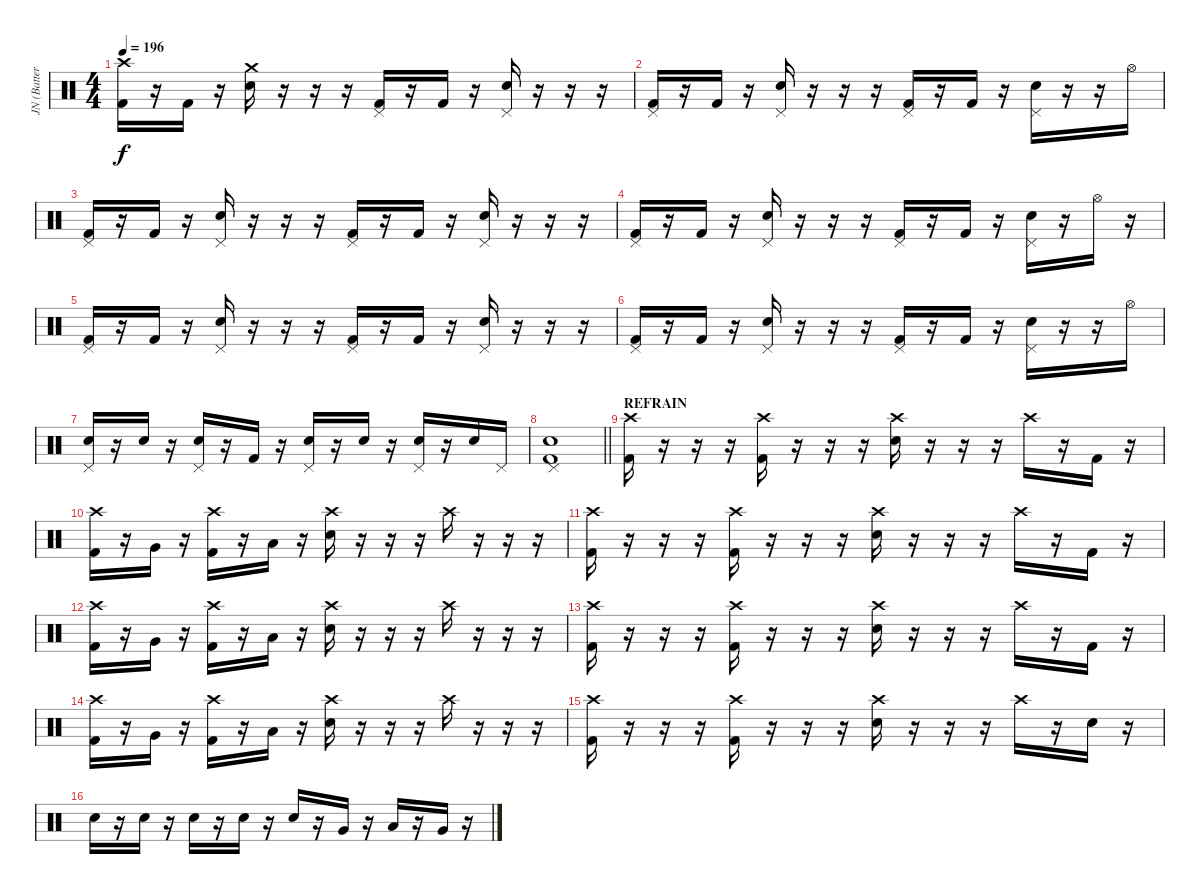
\track ("JN (Batterie)" "JN (Batter") {instrument percussion}
\staff {score}
\articulation defaults
\ts (4 4)
\tempo 196
\clef neutral
\ks c
("Crash high (hit)" "Kick (hit) 2").16{dy f} r.16 "Kick (hit) 2".16 r.16 ("Crash medium (hit)" "Electric Snare (hit)").16 r.16 r.16 r.16 ("Pedal Hi-Hat (hit)" "Kick (hit) 2").16 r.16 "Kick (hit) 2".16 r.16 ("Pedal Hi-Hat (hit)" "Electric Snare (hit)").16 r.16 r.16 r.16 |
("Pedal Hi-Hat (hit)" "Kick (hit) 2").16 r.16 "Kick (hit) 2".16 r.16 ("Pedal Hi-Hat (hit)" "Electric Snare (hit)").16 r.16 r.16 r.16 ("Pedal Hi-Hat (hit)" "Kick (hit) 2").16 r.16 "Kick (hit) 2".16 r.16 ("Pedal Hi-Hat (hit)" "Electric Snare (hit)").16 r.16 r.16 "Hi-Hat (open)".16 |
("Pedal Hi-Hat (hit)" "Kick (hit) 2").16 r.16 "Kick (hit) 2".16 r.16 ("Pedal Hi-Hat (hit)" "Electric Snare (hit)").16 r.16 r.16 r.16 ("Pedal Hi-Hat (hit)" "Kick (hit) 2").16 r.16 "Kick (hit) 2".16 r.16 ("Pedal Hi-Hat (hit)" "Electric Snare (hit)").16 r.16 r.16 r.16 |
("Pedal Hi-Hat (hit)" "Kick (hit) 2").16 r.16 "Kick (hit) 2".16 r.16 ("Pedal Hi-Hat (hit)" "Electric Snare (hit)").16 r.16 r.16 r.16 ("Pedal Hi-Hat (hit)" "Kick (hit) 2").16 r.16 "Kick (hit) 2".16 r.16 ("Pedal Hi-Hat (hit)" "Electric Snare (hit)").16 r.16 "Hi-Hat (open)".16 r.16 |
("Pedal Hi-Hat (hit)" "Kick (hit) 2").16 r.16 "Kick (hit) 2".16 r.16 ("Pedal Hi-Hat (hit)" "Electric Snare (hit)").16 r.16 r.16 r.16 ("Pedal Hi-Hat (hit)" "Kick (hit) 2").16 r.16 "Kick (hit) 2".16 r.16 ("Pedal Hi-Hat (hit)" "Electric Snare (hit)").16 r.16 r.16 r.16 |
("Pedal Hi-Hat (hit)" "Kick (hit) 2").16 r.16 "Kick (hit) 2".16 r.16 ("Pedal Hi-Hat (hit)" "Electric Snare (hit)").16 r.16 r.16 r.16 ("Pedal Hi-Hat (hit)" "Kick (hit) 2").16 r.16 "Kick (hit) 2".16 r.16 ("Pedal Hi-Hat (hit)" "Electric Snare (hit)").16 r.16 r.16 "Hi-Hat (open)".16 |
("Pedal Hi-Hat (hit)" "Electric Snare (hit)").16 r.16 "Electric Snare (hit)".16 r.16 ("Pedal Hi-Hat (hit)" "Electric Snare (hit)").16 r.16 "Kick (hit) 2".16 r.16 ("Pedal Hi-Hat (hit)" "Electric Snare (hit)").16 r.16 "Electric Snare (hit)".16 r.16 ("Pedal Hi-Hat (hit)" "Electric Snare (hit)").16 r.16 "Electric Snare (hit)".16 "Pedal Hi-Hat (hit)".16 |
\barLineRight lightlight
("Pedal Hi-Hat (hit)" "Electric Snare (hit)" "Kick (hit) 2").1 |
\section ("" "REFRAIN")
("Crash high (hit)" "Kick (hit) 2").16 r.16 r.16 r.16 ("Crash high (hit)" "Kick (hit) 2").16 r.16 r.16 r.16 ("Crash high (hit)" "Electric Snare (hit)").16 r.16 r.16 r.16 "Crash high (hit)".16 r.16 "Kick (hit) 2".16 r.16 |
("Crash high (hit)" "Kick (hit) 2").16 r.16 "Very Low Tom (hit)".16 r.16 ("Crash high (hit)" "Kick (hit) 2").16 r.16 "Low Tom (hit)".16 r.16 ("Crash high (hit)" "Electric Snare (hit)").16 r.16 r.16 r.16 "Crash high (hit)".16 r.16 r.16 r.16 |
("Crash high (hit)" "Kick (hit) 2").16 r.16 r.16 r.16 ("Crash high (hit)" "Kick (hit) 2").16 r.16 r.16 r.16 ("Crash high (hit)" "Electric Snare (hit)").16 r.16 r.16 r.16 "Crash high (hit)".16 r.16 "Kick (hit) 2".16 r.16 |
("Crash high (hit)" "Kick (hit) 2").16 r.16 "Very Low Tom (hit)".16 r.16 ("Crash high (hit)" "Kick (hit) 2").16 r.16 "Low Tom (hit)".16 r.16 ("Crash high (hit)" "Electric Snare (hit)").16 r.16 r.16 r.16 "Crash high (hit)".16 r.16 r.16 r.16 |
("Crash high (hit)" "Kick (hit) 2").16 r.16 r.16 r.16 ("Crash high (hit)" "Kick (hit) 2").16 r.16 r.16 r.16 ("Crash high (hit)" "Electric Snare (hit)").16 r.16 r.16 r.16 "Crash high (hit)".16 r.16 "Kick (hit) 2".16 r.16 |
("Crash high (hit)" "Kick (hit) 2").16 r.16 "Very Low Tom (hit)".16 r.16 ("Crash high (hit)" "Kick (hit) 2").16 r.16 "Low Tom (hit)".16 r.16 ("Crash high (hit)" "Electric Snare (hit)").16 r.16 r.16 r.16 "Crash high (hit)".16 r.16 r.16 r.16 |
("Crash high (hit)" "Kick (hit) 2").16 r.16 r.16 r.16 ("Crash high (hit)" "Kick (hit) 2").16 r.16 r.16 r.16 ("Crash high (hit)" "Electric Snare (hit)").16 r.16 r.16 r.16 "Crash high (hit)".16 r.16 "Electric Snare (hit)".16 r.16 |
"Electric Snare (hit)".16 r.16 "Electric Snare (hit)".16 r.16 "Electric Snare (hit)".16 r.16 "Electric Snare (hit)".16 r.16 "Electric Snare (hit)".16 r.16 "Very Low Tom (hit)".16 r.16 "Low Tom (hit)".16 r.16 "Very Low Tom (hit)".16 r.16
